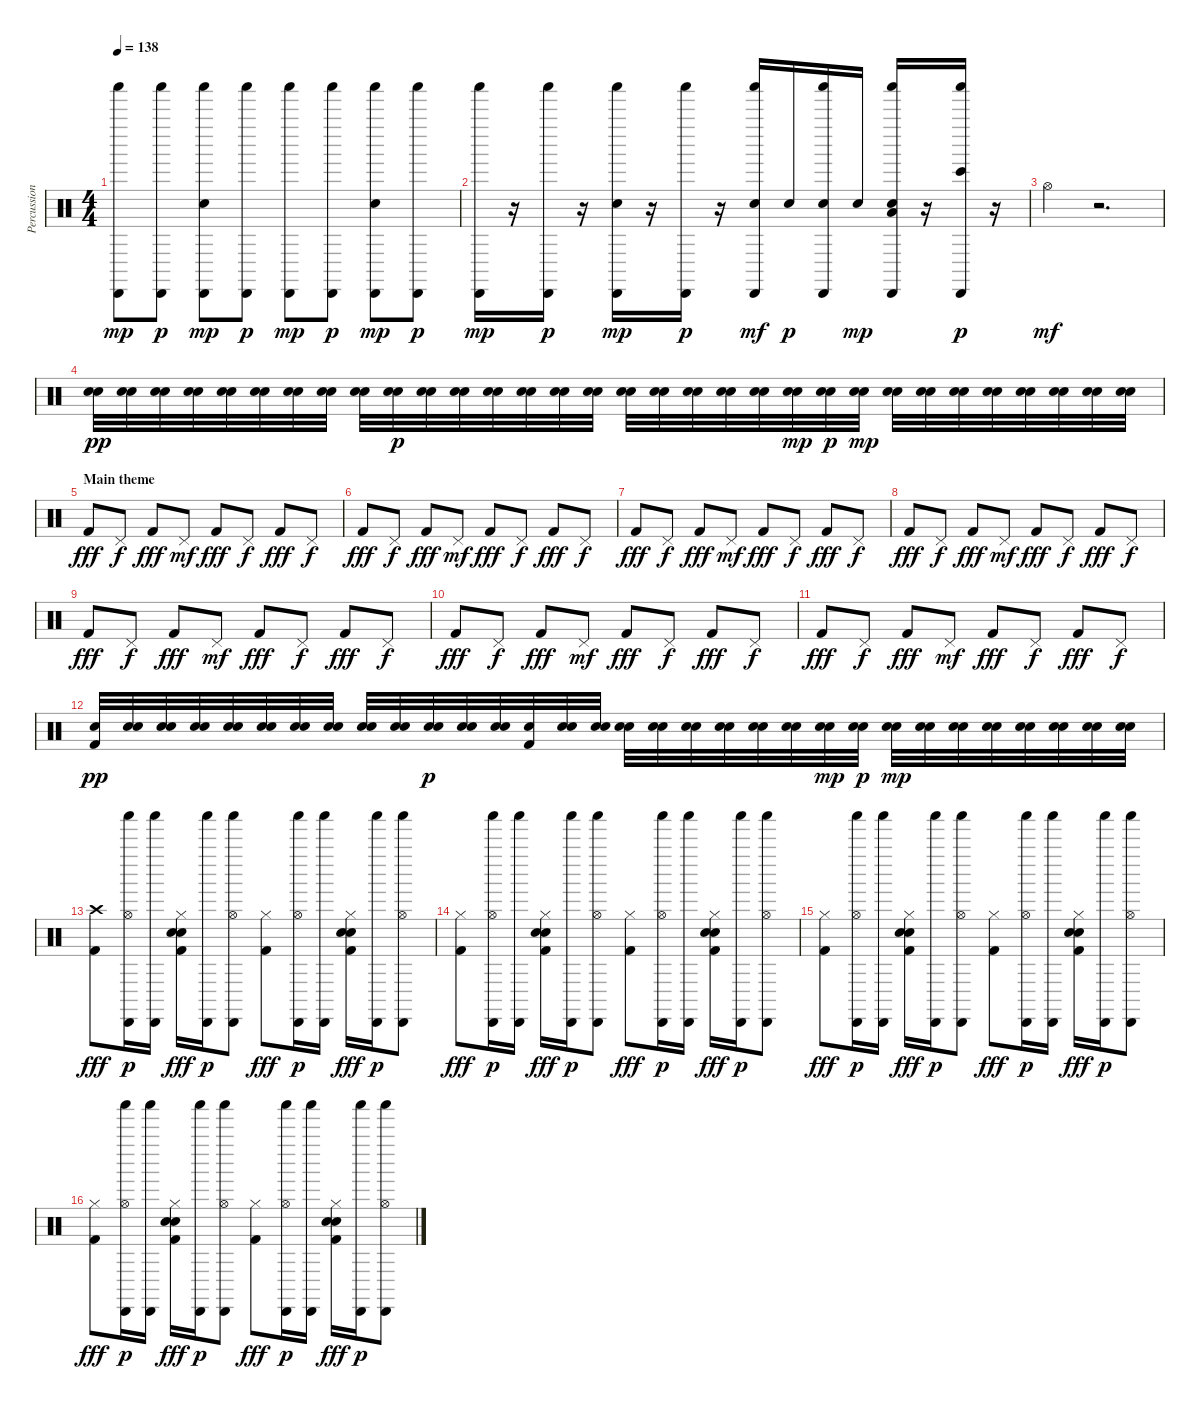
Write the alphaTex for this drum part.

\track ("Percussion" "Percussion") {instrument percussion}
\staff {score}
\articulation defaults
\ts (4 4)
\tempo 138
\clef neutral
\ks c
("Cabasa (hit)" "Shaker (hit)").8{dy mp} ("Cabasa (hit)" "Shaker (hit)").8{dy p} ("Cabasa (hit)" "Shaker (hit)" "Hand Clap (hit)").8{dy mp} ("Cabasa (hit)" "Shaker (hit)").8{dy p} ("Cabasa (hit)" "Shaker (hit)").8{dy mp} ("Cabasa (hit)" "Shaker (hit)").8{dy p} ("Cabasa (hit)" "Shaker (hit)" "Hand Clap (hit)").8{dy mp} ("Cabasa (hit)" "Shaker (hit)").8{dy p} |
("Cabasa (hit)" "Shaker (hit)").16{dy mp} r.16 ("Cabasa (hit)" "Shaker (hit)").16{dy p} r.16 ("Hand Clap (hit)" "Cabasa (hit)" "Shaker (hit)").16{dy mp} r.16 ("Cabasa (hit)" "Shaker (hit)").16{dy p} r.16 ("Cabasa (hit)" "Shaker (hit)" "Snare (hit) 2").16{dy mf} "Snare (hit) 2".16{dy p} ("Snare (hit) 2" "Cabasa (hit)" "Shaker (hit)").16 "Snare (hit) 2".16{dy mp} ("Hand Clap (hit)" "Low Floor Tom (hit)" "Cabasa (hit)" "Shaker (hit)").16 r.16 ("Bongo High (hit)" "Cabasa (hit)" "Shaker (hit)").16{dy p} r.16 |
"Hi-Hat (open)".4{dy mf} r.2{d} |
("Snare (hit) 2" "Snare (hit) 2").32{dy pp} ("Snare (hit) 2" "Snare (hit) 2").32 ("Snare (hit) 2" "Snare (hit) 2").32 ("Snare (hit) 2" "Snare (hit) 2").32 ("Snare (hit) 2" "Snare (hit) 2").32 ("Snare (hit) 2" "Snare (hit) 2").32 ("Snare (hit) 2" "Snare (hit) 2").32 ("Snare (hit) 2" "Snare (hit) 2").32 ("Snare (hit) 2" "Snare (hit) 2").32 ("Snare (hit) 2" "Snare (hit) 2").32{dy p} ("Snare (hit) 2" "Snare (hit) 2").32 ("Snare (hit) 2" "Snare (hit) 2").32 ("Snare (hit) 2" "Snare (hit) 2").32 ("Snare (hit) 2" "Snare (hit) 2").32 ("Snare (hit) 2" "Snare (hit) 2").32 ("Snare (hit) 2" "Snare (hit) 2").32 ("Snare (hit) 2" "Snare (hit) 2").32 ("Snare (hit) 2" "Snare (hit) 2").32 ("Snare (hit) 2" "Snare (hit) 2").32 ("Snare (hit) 2" "Snare (hit) 2").32 ("Snare (hit) 2" "Snare (hit) 2").32 ("Snare (hit) 2" "Snare (hit) 2").32{dy mp} ("Snare (hit) 2" "Snare (hit) 2").32{dy p} ("Snare (hit) 2" "Snare (hit) 2").32{dy mp} ("Snare (hit) 2" "Snare (hit) 2").32 ("Snare (hit) 2" "Snare (hit) 2").32 ("Snare (hit) 2" "Snare (hit) 2").32 ("Snare (hit) 2" "Snare (hit) 2").32 ("Snare (hit) 2" "Snare (hit) 2").32 ("Snare (hit) 2" "Snare (hit) 2").32 ("Snare (hit) 2" "Snare (hit) 2").32 ("Snare (hit) 2" "Snare (hit) 2").32 |
\section ("" "Main theme")
"Kick (hit) 2".8{dy fff} "Pedal Hi-Hat (hit)".8{dy f} "Kick (hit) 2".8{dy fff} "Pedal Hi-Hat (hit)".8{dy mf} "Kick (hit) 2".8{dy fff} "Pedal Hi-Hat (hit)".8{dy f} "Kick (hit) 2".8{dy fff} "Pedal Hi-Hat (hit)".8{dy f} |
"Kick (hit) 2".8{dy fff} "Pedal Hi-Hat (hit)".8{dy f} "Kick (hit) 2".8{dy fff} "Pedal Hi-Hat (hit)".8{dy mf} "Kick (hit) 2".8{dy fff} "Pedal Hi-Hat (hit)".8{dy f} "Kick (hit) 2".8{dy fff} "Pedal Hi-Hat (hit)".8{dy f} |
"Kick (hit) 2".8{dy fff} "Pedal Hi-Hat (hit)".8{dy f} "Kick (hit) 2".8{dy fff} "Pedal Hi-Hat (hit)".8{dy mf} "Kick (hit) 2".8{dy fff} "Pedal Hi-Hat (hit)".8{dy f} "Kick (hit) 2".8{dy fff} "Pedal Hi-Hat (hit)".8{dy f} |
"Kick (hit) 2".8{dy fff} "Pedal Hi-Hat (hit)".8{dy f} "Kick (hit) 2".8{dy fff} "Pedal Hi-Hat (hit)".8{dy mf} "Kick (hit) 2".8{dy fff} "Pedal Hi-Hat (hit)".8{dy f} "Kick (hit) 2".8{dy fff} "Pedal Hi-Hat (hit)".8{dy f} |
"Kick (hit) 2".8{dy fff} "Pedal Hi-Hat (hit)".8{dy f} "Kick (hit) 2".8{dy fff} "Pedal Hi-Hat (hit)".8{dy mf} "Kick (hit) 2".8{dy fff} "Pedal Hi-Hat (hit)".8{dy f} "Kick (hit) 2".8{dy fff} "Pedal Hi-Hat (hit)".8{dy f} |
"Kick (hit) 2".8{dy fff} "Pedal Hi-Hat (hit)".8{dy f} "Kick (hit) 2".8{dy fff} "Pedal Hi-Hat (hit)".8{dy mf} "Kick (hit) 2".8{dy fff} "Pedal Hi-Hat (hit)".8{dy f} "Kick (hit) 2".8{dy fff} "Pedal Hi-Hat (hit)".8{dy f} |
"Kick (hit) 2".8{dy fff} "Pedal Hi-Hat (hit)".8{dy f} "Kick (hit) 2".8{dy fff} "Pedal Hi-Hat (hit)".8{dy mf} "Kick (hit) 2".8{dy fff} "Pedal Hi-Hat (hit)".8{dy f} "Kick (hit) 2".8{dy fff} "Pedal Hi-Hat (hit)".8{dy f} |
("Snare (hit) 2" "Kick (hit) 2").32{dy pp} ("Snare (hit) 2" "Snare (hit) 2").32 ("Snare (hit) 2" "Snare (hit) 2").32 ("Snare (hit) 2" "Snare (hit) 2").32 ("Snare (hit) 2" "Snare (hit) 2").32 ("Snare (hit) 2" "Snare (hit) 2").32 ("Snare (hit) 2" "Snare (hit) 2").32 ("Snare (hit) 2" "Snare (hit) 2").32 ("Snare (hit) 2" "Snare (hit) 2").32 ("Snare (hit) 2" "Snare (hit) 2").32 ("Snare (hit) 2" "Snare (hit) 2").32{dy p} ("Snare (hit) 2" "Snare (hit) 2").32 ("Snare (hit) 2" "Snare (hit) 2").32 ("Snare (hit) 2" "Kick (hit) 2").32 ("Snare (hit) 2" "Snare (hit) 2").32 ("Snare (hit) 2" "Snare (hit) 2").32 ("Snare (hit) 2" "Snare (hit) 2").32 ("Snare (hit) 2" "Snare (hit) 2").32 ("Snare (hit) 2" "Snare (hit) 2").32 ("Snare (hit) 2" "Snare (hit) 2").32 ("Snare (hit) 2" "Snare (hit) 2").32 ("Snare (hit) 2" "Snare (hit) 2").32 ("Snare (hit) 2" "Snare (hit) 2").32{dy mp} ("Snare (hit) 2" "Snare (hit) 2").32{dy p} ("Snare (hit) 2" "Snare (hit) 2").32{dy mp} ("Snare (hit) 2" "Snare (hit) 2").32 ("Snare (hit) 2" "Snare (hit) 2").32 ("Snare (hit) 2" "Snare (hit) 2").32 ("Snare (hit) 2" "Snare (hit) 2").32 ("Snare (hit) 2" "Snare (hit) 2").32 ("Snare (hit) 2" "Snare (hit) 2").32 ("Snare (hit) 2" "Snare (hit) 2").32 |
("Crash high (hit)" "Kick (hit) 2").8{dy fff} ("Cabasa (hit)" "Hi-Hat (open)" "Shaker (hit)").16{dy p} ("Cabasa (hit)" "Shaker (hit)").16 ("Hi-Hat (closed)" "Snare (hit) 2" "Hand Clap (hit)" "Kick (hit) 2").16{dy fff} ("Cabasa (hit)" "Shaker (hit)").16{dy p} ("Cabasa (hit)" "Hi-Hat (open)" "Shaker (hit)").8 ("Hi-Hat (closed)" "Kick (hit) 2").8{dy fff} ("Cabasa (hit)" "Hi-Hat (open)" "Shaker (hit)").16{dy p} ("Cabasa (hit)" "Shaker (hit)").16 ("Hi-Hat (closed)" "Snare (hit) 2" "Hand Clap (hit)" "Kick (hit) 2").16{dy fff} ("Cabasa (hit)" "Shaker (hit)").16{dy p} ("Cabasa (hit)" "Hi-Hat (open)" "Shaker (hit)").8 |
("Hi-Hat (closed)" "Kick (hit) 2").8{dy fff} ("Cabasa (hit)" "Hi-Hat (open)" "Shaker (hit)").16{dy p} ("Cabasa (hit)" "Shaker (hit)").16 ("Hi-Hat (closed)" "Snare (hit) 2" "Hand Clap (hit)" "Kick (hit) 2").16{dy fff} ("Cabasa (hit)" "Shaker (hit)").16{dy p} ("Cabasa (hit)" "Hi-Hat (open)" "Shaker (hit)").8 ("Hi-Hat (closed)" "Kick (hit) 2").8{dy fff} ("Cabasa (hit)" "Hi-Hat (open)" "Shaker (hit)").16{dy p} ("Cabasa (hit)" "Shaker (hit)").16 ("Hi-Hat (closed)" "Snare (hit) 2" "Hand Clap (hit)" "Kick (hit) 2").16{dy fff} ("Cabasa (hit)" "Shaker (hit)").16{dy p} ("Cabasa (hit)" "Hi-Hat (open)" "Shaker (hit)").8 |
("Hi-Hat (closed)" "Kick (hit) 2").8{dy fff} ("Cabasa (hit)" "Hi-Hat (open)" "Shaker (hit)").16{dy p} ("Cabasa (hit)" "Shaker (hit)").16 ("Hi-Hat (closed)" "Snare (hit) 2" "Hand Clap (hit)" "Kick (hit) 2").16{dy fff} ("Cabasa (hit)" "Shaker (hit)").16{dy p} ("Cabasa (hit)" "Hi-Hat (open)" "Shaker (hit)").8 ("Hi-Hat (closed)" "Kick (hit) 2").8{dy fff} ("Cabasa (hit)" "Hi-Hat (open)" "Shaker (hit)").16{dy p} ("Cabasa (hit)" "Shaker (hit)").16 ("Hi-Hat (closed)" "Snare (hit) 2" "Hand Clap (hit)" "Kick (hit) 2").16{dy fff} ("Cabasa (hit)" "Shaker (hit)").16{dy p} ("Cabasa (hit)" "Hi-Hat (open)" "Shaker (hit)").8 |
("Hi-Hat (closed)" "Kick (hit) 2").8{dy fff} ("Cabasa (hit)" "Hi-Hat (open)" "Shaker (hit)").16{dy p} ("Cabasa (hit)" "Shaker (hit)").16 ("Hi-Hat (closed)" "Snare (hit) 2" "Hand Clap (hit)" "Kick (hit) 2").16{dy fff} ("Cabasa (hit)" "Shaker (hit)").16{dy p} ("Cabasa (hit)" "Hi-Hat (open)" "Shaker (hit)").8 ("Hi-Hat (closed)" "Kick (hit) 2").8{dy fff} ("Cabasa (hit)" "Hi-Hat (open)" "Shaker (hit)").16{dy p} ("Cabasa (hit)" "Shaker (hit)").16 ("Hi-Hat (closed)" "Snare (hit) 2" "Hand Clap (hit)" "Kick (hit) 2").16{dy fff} ("Cabasa (hit)" "Shaker (hit)").16{dy p} ("Cabasa (hit)" "Hi-Hat (open)" "Shaker (hit)").8
